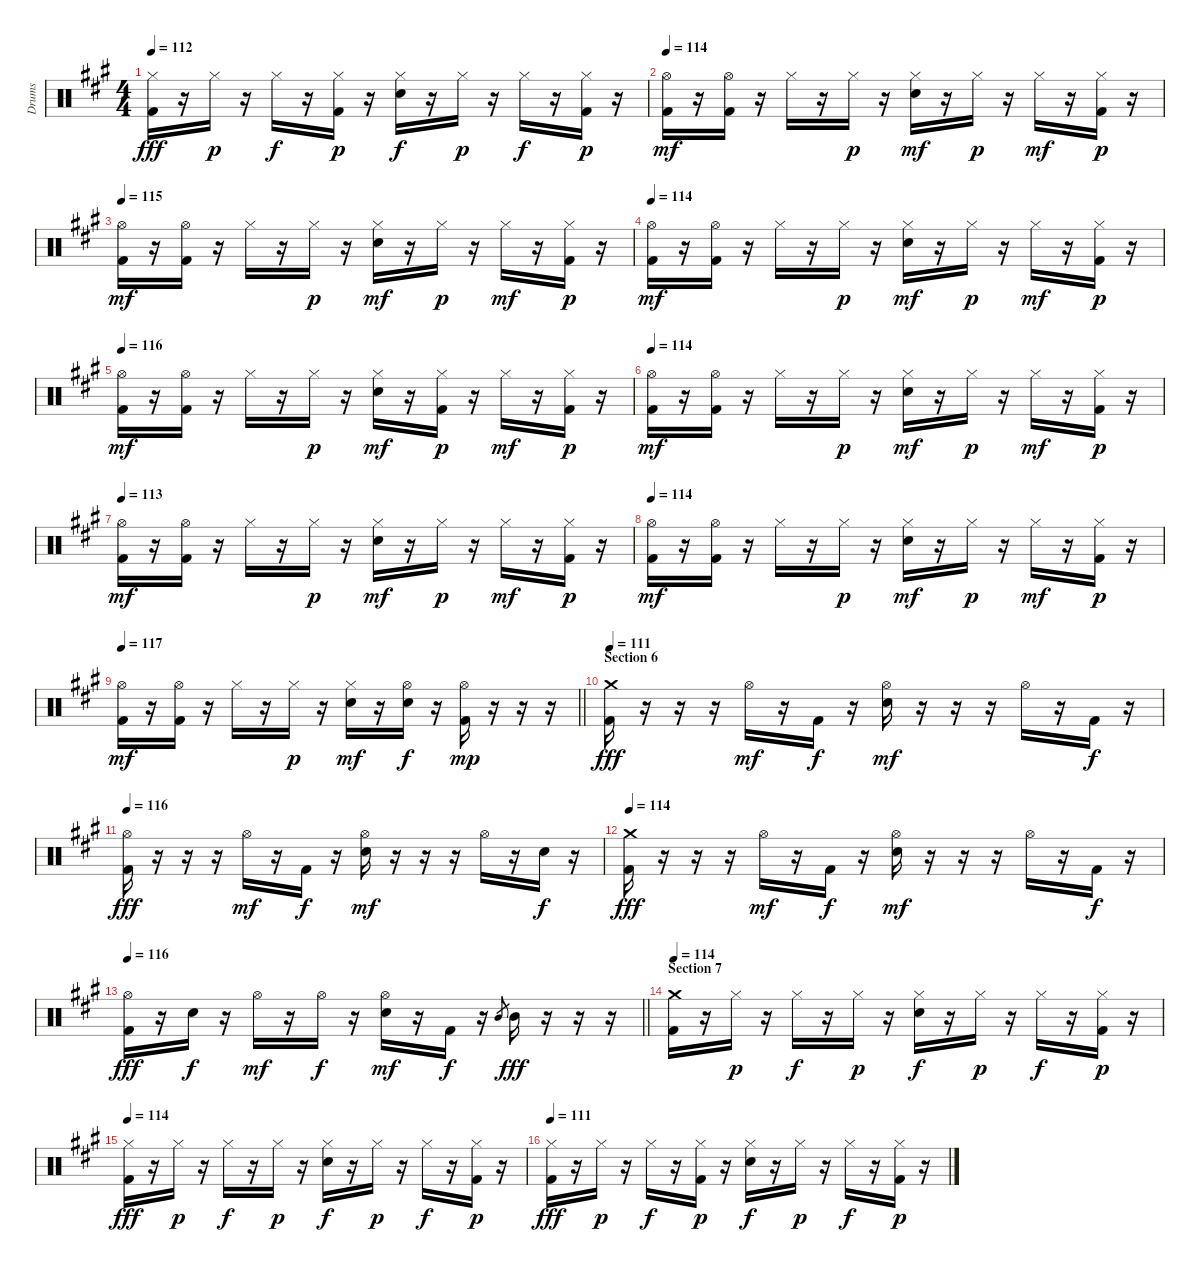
\track ("Drums" "Drums") {instrument percussion}
\staff {score}
\articulation defaults
\ts (4 4)
\tempo 112
\clef neutral
\ks f#minor
("Hi-Hat (closed)" "Kick (hit) 2").16{dy fff} r.16 "Hi-Hat (closed)".16{dy p} r.16 "Hi-Hat (closed)".16{dy f} r.16 ("Hi-Hat (closed)" "Kick (hit) 2").16{dy p} r.16 ("Hi-Hat (closed)" "Electric Snare (hit)").16{dy f} r.16 "Hi-Hat (closed)".16{dy p} r.16 "Hi-Hat (closed)".16{dy f} r.16 ("Hi-Hat (closed)" "Kick (hit) 2").16{dy p} r.16 |
\tempo 114
("Hi-Hat (open)" "Kick (hit) 2").16{dy mf} r.16 ("Hi-Hat (open)" "Kick (hit) 2").16 r.16 "Hi-Hat (closed)".16 r.16 "Hi-Hat (closed)".16{dy p} r.16 ("Hi-Hat (closed)" "Electric Snare (hit)").16{dy mf} r.16 "Hi-Hat (closed)".16{dy p} r.16 "Hi-Hat (closed)".16{dy mf} r.16 ("Hi-Hat (closed)" "Kick (hit) 2").16{dy p} r.16 |
\tempo 115
("Hi-Hat (open)" "Kick (hit) 2").16{dy mf} r.16 ("Hi-Hat (open)" "Kick (hit) 2").16 r.16 "Hi-Hat (closed)".16 r.16 "Hi-Hat (closed)".16{dy p} r.16 ("Hi-Hat (closed)" "Electric Snare (hit)").16{dy mf} r.16 "Hi-Hat (closed)".16{dy p} r.16 "Hi-Hat (closed)".16{dy mf} r.16 ("Hi-Hat (closed)" "Kick (hit) 2").16{dy p} r.16 |
\tempo 114
("Hi-Hat (open)" "Kick (hit) 2").16{dy mf} r.16 ("Hi-Hat (open)" "Kick (hit) 2").16 r.16 "Hi-Hat (closed)".16 r.16 "Hi-Hat (closed)".16{dy p} r.16 ("Hi-Hat (closed)" "Electric Snare (hit)").16{dy mf} r.16 "Hi-Hat (closed)".16{dy p} r.16 "Hi-Hat (closed)".16{dy mf} r.16 ("Hi-Hat (closed)" "Kick (hit) 2").16{dy p} r.16 |
\tempo 116
("Hi-Hat (open)" "Kick (hit) 2").16{dy mf} r.16 ("Hi-Hat (open)" "Kick (hit) 2").16 r.16 "Hi-Hat (closed)".16 r.16 "Hi-Hat (closed)".16{dy p} r.16 ("Hi-Hat (closed)" "Electric Snare (hit)").16{dy mf} r.16 ("Hi-Hat (closed)" "Kick (hit) 2").16{dy p} r.16 "Hi-Hat (closed)".16{dy mf} r.16 ("Hi-Hat (closed)" "Kick (hit) 2").16{dy p} r.16 |
\tempo 114
("Hi-Hat (open)" "Kick (hit) 2").16{dy mf} r.16 ("Hi-Hat (open)" "Kick (hit) 2").16 r.16 "Hi-Hat (closed)".16 r.16 "Hi-Hat (closed)".16{dy p} r.16 ("Hi-Hat (closed)" "Electric Snare (hit)").16{dy mf} r.16 "Hi-Hat (closed)".16{dy p} r.16 "Hi-Hat (closed)".16{dy mf} r.16 ("Hi-Hat (closed)" "Kick (hit) 2").16{dy p} r.16 |
\tempo 113
("Hi-Hat (open)" "Kick (hit) 2").16{dy mf} r.16 ("Hi-Hat (open)" "Kick (hit) 2").16 r.16 "Hi-Hat (closed)".16 r.16 "Hi-Hat (closed)".16{dy p} r.16 ("Hi-Hat (closed)" "Electric Snare (hit)").16{dy mf} r.16 "Hi-Hat (closed)".16{dy p} r.16 "Hi-Hat (closed)".16{dy mf} r.16 ("Hi-Hat (closed)" "Kick (hit) 2").16{dy p} r.16 |
\tempo 114
("Hi-Hat (open)" "Kick (hit) 2").16{dy mf} r.16 ("Hi-Hat (open)" "Kick (hit) 2").16 r.16 "Hi-Hat (closed)".16 r.16 "Hi-Hat (closed)".16{dy p} r.16 ("Hi-Hat (closed)" "Electric Snare (hit)").16{dy mf} r.16 "Hi-Hat (closed)".16{dy p} r.16 "Hi-Hat (closed)".16{dy mf} r.16 ("Hi-Hat (closed)" "Kick (hit) 2").16{dy p} r.16 |
\tempo 117
\barLineRight lightlight
("Hi-Hat (open)" "Kick (hit) 2").16{dy mf} r.16 ("Hi-Hat (open)" "Kick (hit) 2").16 r.16 "Hi-Hat (closed)".16 r.16 "Hi-Hat (closed)".16{dy p} r.16 ("Hi-Hat (closed)" "Electric Snare (hit)").16{dy mf} r.16 ("Hi-Hat (open)" "Electric Snare (hit)").16{dy f} r.16 ("Hi-Hat (open)" "Kick (hit) 2").16{dy mp} r.16 r.16 r.16 |
\section ("" "Section 6")
\tempo 111
("Crash medium (hit)" "Kick (hit) 2").16{dy fff} r.16 r.16 r.16 "Hi-Hat (open)".16{dy mf} r.16 "Kick (hit) 2".16{dy f} r.16 ("Hi-Hat (open)" "Electric Snare (hit)").16{dy mf} r.16 r.16 r.16 "Hi-Hat (open)".16 r.16 "Kick (hit) 2".16{dy f} r.16 |
\tempo 116
("Hi-Hat (open)" "Kick (hit) 2").16{dy fff} r.16 r.16 r.16 "Hi-Hat (open)".16{dy mf} r.16 "Kick (hit) 2".16{dy f} r.16 ("Hi-Hat (open)" "Electric Snare (hit)").16{dy mf} r.16 r.16 r.16 "Hi-Hat (open)".16 r.16 "Electric Snare (hit)".16{dy f} r.16 |
\tempo 114
("Crash medium (hit)" "Kick (hit) 2").16{dy fff} r.16 r.16 r.16 "Hi-Hat (open)".16{dy mf} r.16 "Kick (hit) 2".16{dy f} r.16 ("Hi-Hat (open)" "Electric Snare (hit)").16{dy mf} r.16 r.16 r.16 "Hi-Hat (open)".16 r.16 "Kick (hit) 2".16{dy f} r.16 |
\tempo 116
\barLineRight lightlight
("Hi-Hat (open)" "Kick (hit) 2").16{dy fff} r.16 "Electric Snare (hit)".16{dy f} r.16 "Hi-Hat (open)".16{dy mf} r.16 "Hi-Hat (open)".16{dy f} r.16 ("Hi-Hat (open)" "Electric Snare (hit)").16{dy mf} r.16 "Kick (hit) 2".16{dy f} r.16 "Mid Tom (hit)".8{gr} "Mid Tom (hit)".16{dy fff} r.16 r.16 r.16 |
\section ("" "Section 7")
\tempo 114
("Crash medium (hit)" "Kick (hit) 2").16 r.16 "Hi-Hat (closed)".16{dy p} r.16 "Hi-Hat (closed)".16{dy f} r.16 "Hi-Hat (closed)".16{dy p} r.16 ("Hi-Hat (closed)" "Electric Snare (hit)").16{dy f} r.16 "Hi-Hat (closed)".16{dy p} r.16 "Hi-Hat (closed)".16{dy f} r.16 ("Hi-Hat (closed)" "Kick (hit) 2").16{dy p} r.16 |
\tempo 114
("Hi-Hat (closed)" "Kick (hit) 2").16{dy fff} r.16 "Hi-Hat (closed)".16{dy p} r.16 "Hi-Hat (closed)".16{dy f} r.16 "Hi-Hat (closed)".16{dy p} r.16 ("Hi-Hat (closed)" "Electric Snare (hit)").16{dy f} r.16 "Hi-Hat (closed)".16{dy p} r.16 "Hi-Hat (closed)".16{dy f} r.16 ("Hi-Hat (closed)" "Kick (hit) 2").16{dy p} r.16 |
\tempo 111
("Hi-Hat (closed)" "Kick (hit) 2").16{dy fff} r.16 "Hi-Hat (closed)".16{dy p} r.16 "Hi-Hat (closed)".16{dy f} r.16 ("Hi-Hat (closed)" "Kick (hit) 2").16{dy p} r.16 ("Hi-Hat (closed)" "Electric Snare (hit)").16{dy f} r.16 "Hi-Hat (closed)".16{dy p} r.16 "Hi-Hat (closed)".16{dy f} r.16 ("Hi-Hat (closed)" "Kick (hit) 2").16{dy p} r.16
